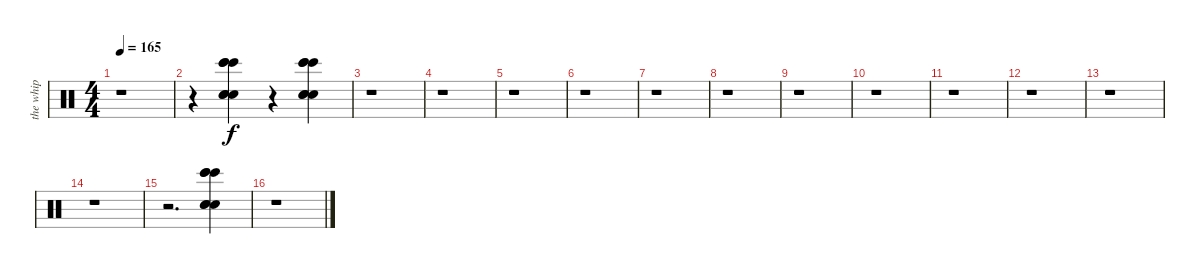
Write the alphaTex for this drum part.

\track ("the whip " "the whip ") {instrument percussion}
\staff {score}
\articulation defaults
\ts (4 4)
\tempo 165
\clef neutral
\ks c
r.1{dy f} |
r.4 ("Hand Clap (hit)" "Hand Clap (hit)" "Hand Clap (hit)" "Bongo High (hit)" "Bongo High (hit)" "Bongo High (hit)").4 r.4 ("Hand Clap (hit)" "Hand Clap (hit)" "Hand Clap (hit)" "Bongo High (hit)" "Bongo High (hit)" "Bongo High (hit)").4 |
r.1 |
r.1 |
r.1 |
r.1 |
r.1 |
r.1 |
r.1 |
r.1 |
r.1 |
r.1 |
r.1 |
r.1 |
r.2{d} ("Hand Clap (hit)" "Hand Clap (hit)" "Hand Clap (hit)" "Bongo High (hit)" "Bongo High (hit)" "Bongo High (hit)").4 |
r.1
